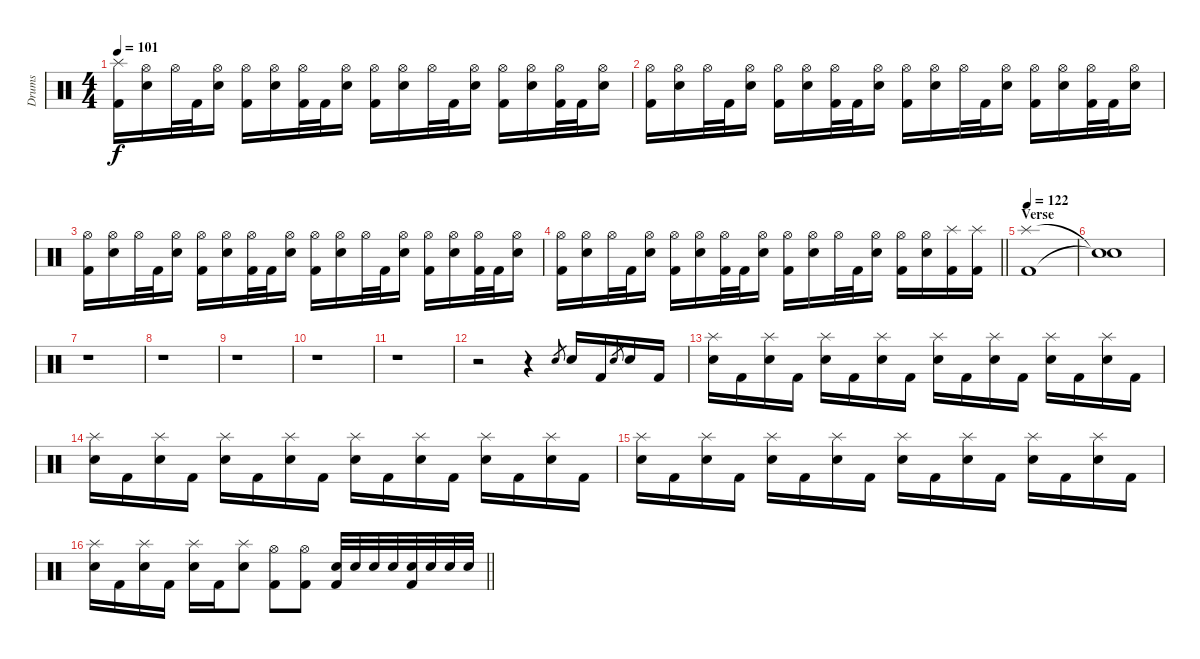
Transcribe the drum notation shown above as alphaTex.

\track ("Drums" "Drums") {instrument percussion}
\staff {score}
\articulation defaults
\ts (4 4)
\tempo 101
\clef neutral
\ks c
("Splash (hit)" "Kick (hit) 2").16{dy f} ("Hi-Hat (open)" "Electric Snare (hit)").16 "Hi-Hat (open)".32 "Kick (hit) 2".32 ("Hi-Hat (open)" "Electric Snare (hit)").16 ("Hi-Hat (open)" "Kick (hit) 2").16 ("Hi-Hat (open)" "Electric Snare (hit)").16 ("Hi-Hat (open)" "Kick (hit) 2").32 "Kick (hit) 2".32 ("Hi-Hat (open)" "Electric Snare (hit)").16 ("Hi-Hat (open)" "Kick (hit) 2").16 ("Hi-Hat (open)" "Electric Snare (hit)").16 "Hi-Hat (open)".32 "Kick (hit) 2".32 ("Hi-Hat (open)" "Electric Snare (hit)").16 ("Hi-Hat (open)" "Kick (hit) 2").16 ("Hi-Hat (open)" "Electric Snare (hit)").16 ("Hi-Hat (open)" "Kick (hit) 2").32 "Kick (hit) 2".32 ("Hi-Hat (open)" "Electric Snare (hit)").16 |
("Hi-Hat (open)" "Kick (hit) 2").16 ("Hi-Hat (open)" "Electric Snare (hit)").16 "Hi-Hat (open)".32 "Kick (hit) 2".32 ("Hi-Hat (open)" "Electric Snare (hit)").16 ("Hi-Hat (open)" "Kick (hit) 2").16 ("Hi-Hat (open)" "Electric Snare (hit)").16 ("Hi-Hat (open)" "Kick (hit) 2").32 "Kick (hit) 2".32 ("Hi-Hat (open)" "Electric Snare (hit)").16 ("Hi-Hat (open)" "Kick (hit) 2").16 ("Hi-Hat (open)" "Electric Snare (hit)").16 "Hi-Hat (open)".32 "Kick (hit) 2".32 ("Hi-Hat (open)" "Electric Snare (hit)").16 ("Hi-Hat (open)" "Kick (hit) 2").16 ("Hi-Hat (open)" "Electric Snare (hit)").16 ("Hi-Hat (open)" "Kick (hit) 2").32 "Kick (hit) 2".32 ("Hi-Hat (open)" "Electric Snare (hit)").16 |
("Hi-Hat (open)" "Kick (hit) 2").16 ("Hi-Hat (open)" "Electric Snare (hit)").16 "Hi-Hat (open)".32 "Kick (hit) 2".32 ("Hi-Hat (open)" "Electric Snare (hit)").16 ("Hi-Hat (open)" "Kick (hit) 2").16 ("Hi-Hat (open)" "Electric Snare (hit)").16 ("Hi-Hat (open)" "Kick (hit) 2").32 "Kick (hit) 2".32 ("Hi-Hat (open)" "Electric Snare (hit)").16 ("Hi-Hat (open)" "Kick (hit) 2").16 ("Hi-Hat (open)" "Electric Snare (hit)").16 "Hi-Hat (open)".32 "Kick (hit) 2".32 ("Hi-Hat (open)" "Electric Snare (hit)").16 ("Hi-Hat (open)" "Kick (hit) 2").16 ("Hi-Hat (open)" "Electric Snare (hit)").16 ("Hi-Hat (open)" "Kick (hit) 2").32 "Kick (hit) 2".32 ("Hi-Hat (open)" "Electric Snare (hit)").16 |
\barLineRight lightlight
("Hi-Hat (open)" "Kick (hit) 2").16 ("Hi-Hat (open)" "Electric Snare (hit)").16 "Hi-Hat (open)".32 "Kick (hit) 2".32 ("Hi-Hat (open)" "Electric Snare (hit)").16 ("Hi-Hat (open)" "Kick (hit) 2").16 ("Hi-Hat (open)" "Electric Snare (hit)").16 ("Hi-Hat (open)" "Kick (hit) 2").32 "Kick (hit) 2".32 ("Hi-Hat (open)" "Electric Snare (hit)").16 ("Hi-Hat (open)" "Kick (hit) 2").16 ("Hi-Hat (open)" "Electric Snare (hit)").16 "Hi-Hat (open)".32 "Kick (hit) 2".32 ("Hi-Hat (open)" "Electric Snare (hit)").16 ("Hi-Hat (open)" "Kick (hit) 2").16 ("Hi-Hat (open)" "Electric Snare (hit)").16 ("Splash (hit)" "Kick (hit) 2").16 ("Splash (hit)" "Kick (hit) 2").16 |
\section ("" "Verse")
\tempo 122
("Splash (hit)" "Kick (hit) 2").1 |
("Snare (hit)"{t} "Snare (hit)"{t}).1 |
r.1 |
r.1 |
r.1 |
r.1 |
r.1 |
r.2 r.4 "Electric Snare (hit)".8{gr} "Electric Snare (hit)".16 "Kick (hit) 2".16 "Electric Snare (hit)".8{gr} "Electric Snare (hit)".16 "Kick (hit) 2".16 |
("Splash (hit)" "Electric Snare (hit)").16 "Kick (hit) 2".16 ("Splash (hit)" "Electric Snare (hit)").16 "Kick (hit) 2".16 ("Splash (hit)" "Electric Snare (hit)").16 "Kick (hit) 2".16 ("Splash (hit)" "Electric Snare (hit)").16 "Kick (hit) 2".16 ("Splash (hit)" "Electric Snare (hit)").16 "Kick (hit) 2".16 ("Splash (hit)" "Electric Snare (hit)").16 "Kick (hit) 2".16 ("Splash (hit)" "Electric Snare (hit)").16 "Kick (hit) 2".16 ("Splash (hit)" "Electric Snare (hit)").16 "Kick (hit) 2".16 |
("Splash (hit)" "Electric Snare (hit)").16 "Kick (hit) 2".16 ("Splash (hit)" "Electric Snare (hit)").16 "Kick (hit) 2".16 ("Splash (hit)" "Electric Snare (hit)").16 "Kick (hit) 2".16 ("Splash (hit)" "Electric Snare (hit)").16 "Kick (hit) 2".16 ("Splash (hit)" "Electric Snare (hit)").16 "Kick (hit) 2".16 ("Splash (hit)" "Electric Snare (hit)").16 "Kick (hit) 2".16 ("Splash (hit)" "Electric Snare (hit)").16 "Kick (hit) 2".16 ("Splash (hit)" "Electric Snare (hit)").16 "Kick (hit) 2".16 |
("Splash (hit)" "Electric Snare (hit)").16 "Kick (hit) 2".16 ("Splash (hit)" "Electric Snare (hit)").16 "Kick (hit) 2".16 ("Splash (hit)" "Electric Snare (hit)").16 "Kick (hit) 2".16 ("Splash (hit)" "Electric Snare (hit)").16 "Kick (hit) 2".16 ("Splash (hit)" "Electric Snare (hit)").16 "Kick (hit) 2".16 ("Splash (hit)" "Electric Snare (hit)").16 "Kick (hit) 2".16 ("Splash (hit)" "Electric Snare (hit)").16 "Kick (hit) 2".16 ("Splash (hit)" "Electric Snare (hit)").16 "Kick (hit) 2".16 |
\barLineRight lightlight
("Splash (hit)" "Electric Snare (hit)").16 "Kick (hit) 2".16 ("Splash (hit)" "Electric Snare (hit)").16 "Kick (hit) 2".16 ("Splash (hit)" "Electric Snare (hit)").16 "Kick (hit) 2".16 ("Splash (hit)" "Electric Snare (hit)").8 ("Hi-Hat (open)" "Kick (hit) 2").8 ("Hi-Hat (open)" "Kick (hit) 2").8 ("Electric Snare (hit)" "Kick (hit) 2").32 "Electric Snare (hit)".32 "Electric Snare (hit)".32 "Electric Snare (hit)".32 ("Electric Snare (hit)" "Kick (hit) 2").32 "Electric Snare (hit)".32 "Electric Snare (hit)".32 "Electric Snare (hit)".32
